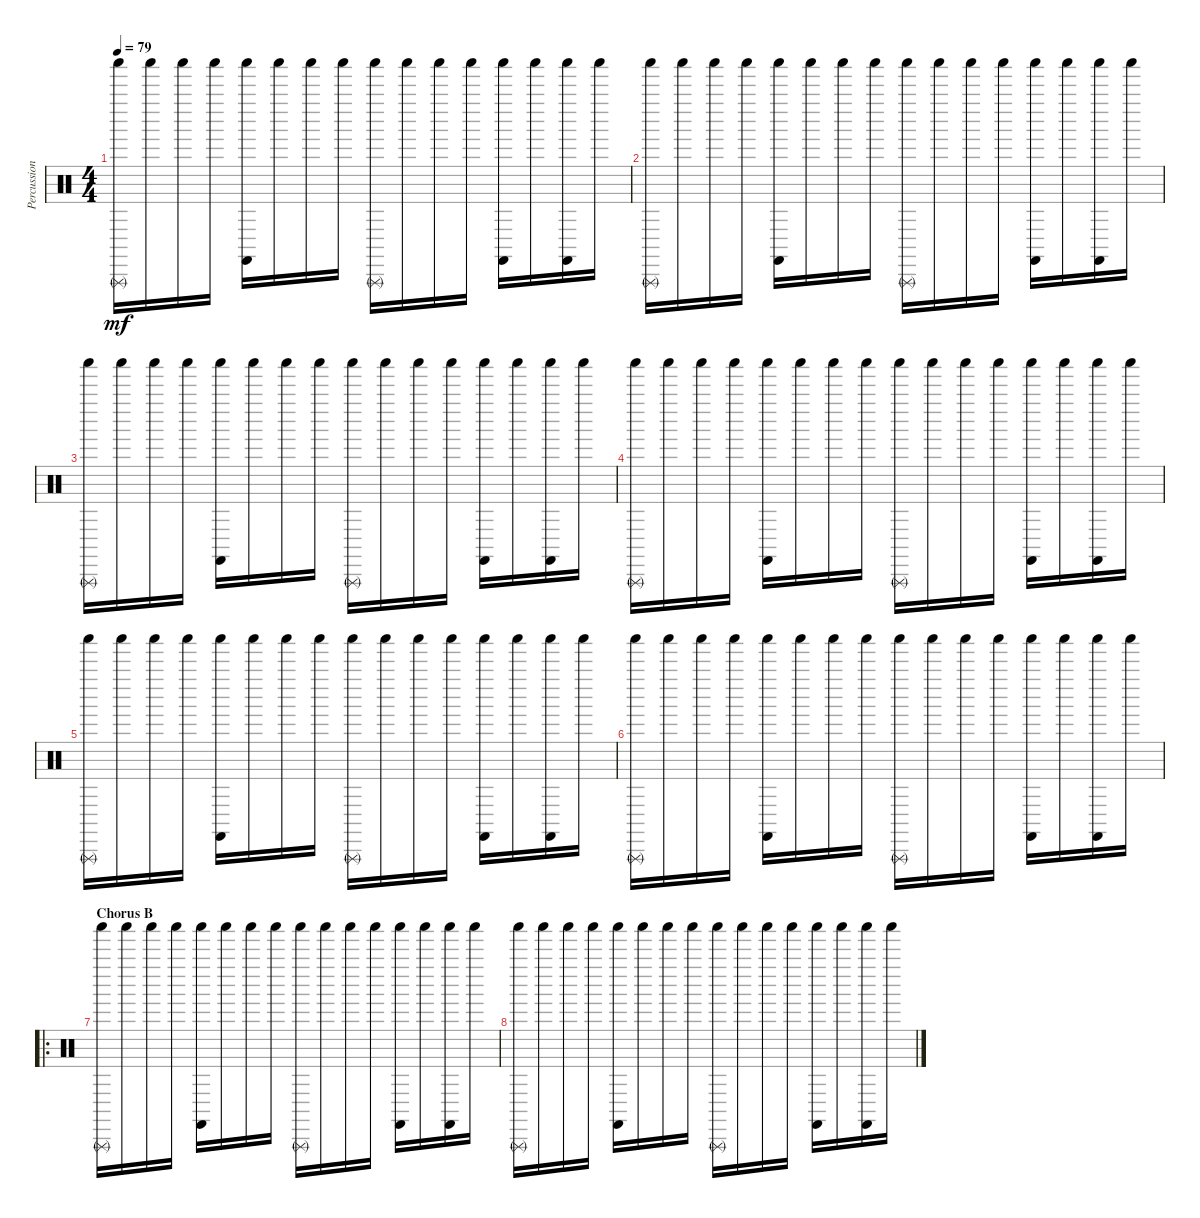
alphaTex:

\track ("Percussion" "Percussion") {instrument percussion}
\staff {score}
\articulation defaults
\ts (4 4)
\tempo 79
\clef neutral
\ks c
("Shaker (hit)" "Triangle (rnute)").16{dy mf} "Shaker (hit)".16 "Shaker (hit)".16 "Shaker (hit)".16 ("Shaker (hit)" "Castanets (hit)").16 "Shaker (hit)".16 "Shaker (hit)".16 "Shaker (hit)".16 ("Shaker (hit)" "Triangle (rnute)").16 "Shaker (hit)".16 "Shaker (hit)".16 "Shaker (hit)".16 ("Shaker (hit)" "Castanets (hit)").16 "Shaker (hit)".16 ("Shaker (hit)" "Castanets (hit)").16 "Shaker (hit)".16 |
("Shaker (hit)" "Triangle (rnute)").16 "Shaker (hit)".16 "Shaker (hit)".16 "Shaker (hit)".16 ("Shaker (hit)" "Castanets (hit)").16 "Shaker (hit)".16 "Shaker (hit)".16 "Shaker (hit)".16 ("Shaker (hit)" "Triangle (rnute)").16 "Shaker (hit)".16 "Shaker (hit)".16 "Shaker (hit)".16 ("Shaker (hit)" "Castanets (hit)").16 "Shaker (hit)".16 ("Shaker (hit)" "Castanets (hit)").16 "Shaker (hit)".16 |
("Shaker (hit)" "Triangle (rnute)").16 "Shaker (hit)".16 "Shaker (hit)".16 "Shaker (hit)".16 ("Shaker (hit)" "Castanets (hit)").16 "Shaker (hit)".16 "Shaker (hit)".16 "Shaker (hit)".16 ("Shaker (hit)" "Triangle (rnute)").16 "Shaker (hit)".16 "Shaker (hit)".16 "Shaker (hit)".16 ("Shaker (hit)" "Castanets (hit)").16 "Shaker (hit)".16 ("Shaker (hit)" "Castanets (hit)").16 "Shaker (hit)".16 |
("Shaker (hit)" "Triangle (rnute)").16 "Shaker (hit)".16 "Shaker (hit)".16 "Shaker (hit)".16 ("Shaker (hit)" "Castanets (hit)").16 "Shaker (hit)".16 "Shaker (hit)".16 "Shaker (hit)".16 ("Shaker (hit)" "Triangle (rnute)").16 "Shaker (hit)".16 "Shaker (hit)".16 "Shaker (hit)".16 ("Shaker (hit)" "Castanets (hit)").16 "Shaker (hit)".16 ("Shaker (hit)" "Castanets (hit)").16 "Shaker (hit)".16 |
("Shaker (hit)" "Triangle (rnute)").16 "Shaker (hit)".16 "Shaker (hit)".16 "Shaker (hit)".16 ("Shaker (hit)" "Castanets (hit)").16 "Shaker (hit)".16 "Shaker (hit)".16 "Shaker (hit)".16 ("Shaker (hit)" "Triangle (rnute)").16 "Shaker (hit)".16 "Shaker (hit)".16 "Shaker (hit)".16 ("Shaker (hit)" "Castanets (hit)").16 "Shaker (hit)".16 ("Shaker (hit)" "Castanets (hit)").16 "Shaker (hit)".16 |
("Shaker (hit)" "Triangle (rnute)").16 "Shaker (hit)".16 "Shaker (hit)".16 "Shaker (hit)".16 ("Shaker (hit)" "Castanets (hit)").16 "Shaker (hit)".16 "Shaker (hit)".16 "Shaker (hit)".16 ("Shaker (hit)" "Triangle (rnute)").16 "Shaker (hit)".16 "Shaker (hit)".16 "Shaker (hit)".16 ("Shaker (hit)" "Castanets (hit)").16 "Shaker (hit)".16 ("Shaker (hit)" "Castanets (hit)").16 "Shaker (hit)".16 |
\ro
\section ("" "Chorus B")
("Shaker (hit)" "Triangle (rnute)").16 "Shaker (hit)".16 "Shaker (hit)".16 "Shaker (hit)".16 ("Shaker (hit)" "Castanets (hit)").16 "Shaker (hit)".16 "Shaker (hit)".16 "Shaker (hit)".16 ("Shaker (hit)" "Triangle (rnute)").16 "Shaker (hit)".16 "Shaker (hit)".16 "Shaker (hit)".16 ("Shaker (hit)" "Castanets (hit)").16 "Shaker (hit)".16 ("Shaker (hit)" "Castanets (hit)").16 "Shaker (hit)".16 |
("Shaker (hit)" "Triangle (rnute)").16 "Shaker (hit)".16 "Shaker (hit)".16 "Shaker (hit)".16 ("Shaker (hit)" "Castanets (hit)").16 "Shaker (hit)".16 "Shaker (hit)".16 "Shaker (hit)".16 ("Shaker (hit)" "Triangle (rnute)").16 "Shaker (hit)".16 "Shaker (hit)".16 "Shaker (hit)".16 ("Shaker (hit)" "Castanets (hit)").16 "Shaker (hit)".16 ("Shaker (hit)" "Castanets (hit)").16 "Shaker (hit)".16
